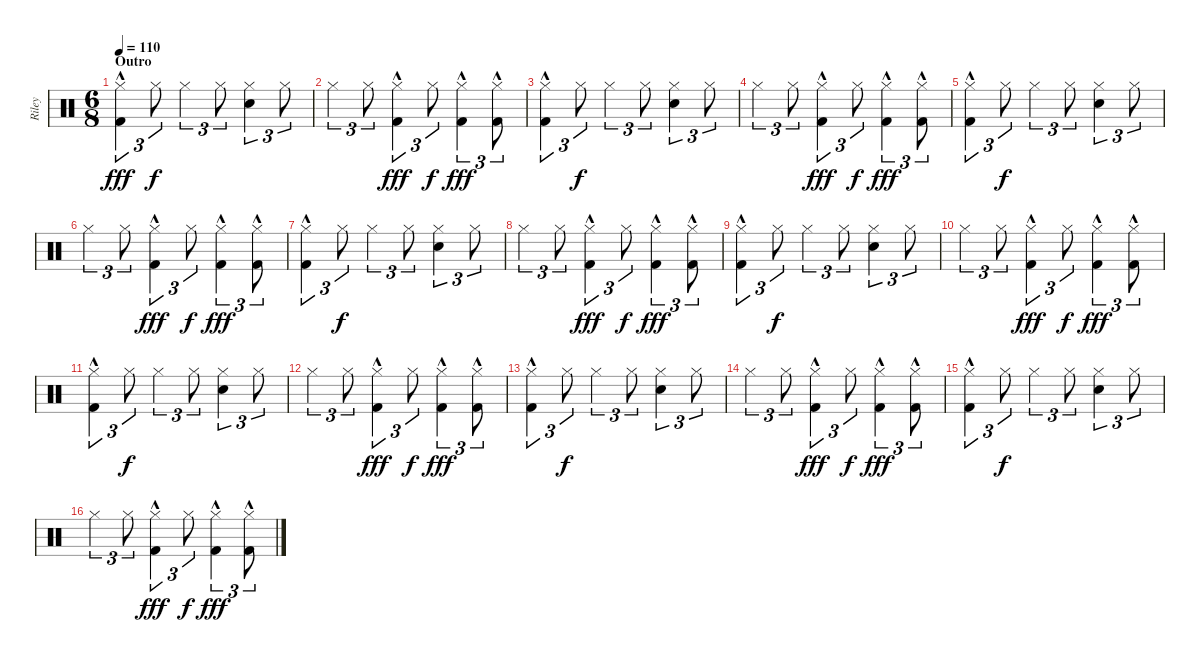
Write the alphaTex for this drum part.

\track ("Riley" "Riley") {instrument percussion}
\staff {score}
\articulation defaults
\ts (6 8)
\section ("" "Outro")
\tempo 110
\clef neutral
\ks c
("Hi-Hat (closed)" "Kick (hit) 2"{hac}).4{tu (3 2) dy fff} "Hi-Hat (closed)".8{tu (3 2) dy f} "Hi-Hat (closed)".4{tu (3 2)} "Hi-Hat (closed)".8{tu (3 2)} ("Hi-Hat (closed)" "Electric Snare (hit)").4{tu (3 2)} "Hi-Hat (closed)".8{tu (3 2)} |
"Hi-Hat (closed)".4{tu (3 2)} "Hi-Hat (closed)".8{tu (3 2)} ("Hi-Hat (closed)" "Kick (hit) 2"{hac}).4{tu (3 2) dy fff} "Hi-Hat (closed)".8{tu (3 2) dy f} ("Hi-Hat (closed)" "Kick (hit) 2"{hac}).4{tu (3 2) dy fff} ("Hi-Hat (closed)" "Kick (hit) 2"{hac}).8{tu (3 2)} |
("Hi-Hat (closed)" "Kick (hit) 2"{hac}).4{tu (3 2)} "Hi-Hat (closed)".8{tu (3 2) dy f} "Hi-Hat (closed)".4{tu (3 2)} "Hi-Hat (closed)".8{tu (3 2)} ("Hi-Hat (closed)" "Electric Snare (hit)").4{tu (3 2)} "Hi-Hat (closed)".8{tu (3 2)} |
"Hi-Hat (closed)".4{tu (3 2)} "Hi-Hat (closed)".8{tu (3 2)} ("Hi-Hat (closed)" "Kick (hit) 2"{hac}).4{tu (3 2) dy fff} "Hi-Hat (closed)".8{tu (3 2) dy f} ("Hi-Hat (closed)" "Kick (hit) 2"{hac}).4{tu (3 2) dy fff} ("Hi-Hat (closed)" "Kick (hit) 2"{hac}).8{tu (3 2)} |
("Hi-Hat (closed)" "Kick (hit) 2"{hac}).4{tu (3 2)} "Hi-Hat (closed)".8{tu (3 2) dy f} "Hi-Hat (closed)".4{tu (3 2)} "Hi-Hat (closed)".8{tu (3 2)} ("Hi-Hat (closed)" "Electric Snare (hit)").4{tu (3 2)} "Hi-Hat (closed)".8{tu (3 2)} |
"Hi-Hat (closed)".4{tu (3 2)} "Hi-Hat (closed)".8{tu (3 2)} ("Hi-Hat (closed)" "Kick (hit) 2"{hac}).4{tu (3 2) dy fff} "Hi-Hat (closed)".8{tu (3 2) dy f} ("Hi-Hat (closed)" "Kick (hit) 2"{hac}).4{tu (3 2) dy fff} ("Hi-Hat (closed)" "Kick (hit) 2"{hac}).8{tu (3 2)} |
("Hi-Hat (closed)" "Kick (hit) 2"{hac}).4{tu (3 2)} "Hi-Hat (closed)".8{tu (3 2) dy f} "Hi-Hat (closed)".4{tu (3 2)} "Hi-Hat (closed)".8{tu (3 2)} ("Hi-Hat (closed)" "Electric Snare (hit)").4{tu (3 2)} "Hi-Hat (closed)".8{tu (3 2)} |
"Hi-Hat (closed)".4{tu (3 2)} "Hi-Hat (closed)".8{tu (3 2)} ("Hi-Hat (closed)" "Kick (hit) 2"{hac}).4{tu (3 2) dy fff} "Hi-Hat (closed)".8{tu (3 2) dy f} ("Hi-Hat (closed)" "Kick (hit) 2"{hac}).4{tu (3 2) dy fff} ("Hi-Hat (closed)" "Kick (hit) 2"{hac}).8{tu (3 2)} |
("Hi-Hat (closed)" "Kick (hit) 2"{hac}).4{tu (3 2)} "Hi-Hat (closed)".8{tu (3 2) dy f} "Hi-Hat (closed)".4{tu (3 2)} "Hi-Hat (closed)".8{tu (3 2)} ("Hi-Hat (closed)" "Electric Snare (hit)").4{tu (3 2)} "Hi-Hat (closed)".8{tu (3 2)} |
"Hi-Hat (closed)".4{tu (3 2)} "Hi-Hat (closed)".8{tu (3 2)} ("Hi-Hat (closed)" "Kick (hit) 2"{hac}).4{tu (3 2) dy fff} "Hi-Hat (closed)".8{tu (3 2) dy f} ("Hi-Hat (closed)" "Kick (hit) 2"{hac}).4{tu (3 2) dy fff} ("Hi-Hat (closed)" "Kick (hit) 2"{hac}).8{tu (3 2)} |
("Hi-Hat (closed)" "Kick (hit) 2"{hac}).4{tu (3 2)} "Hi-Hat (closed)".8{tu (3 2) dy f} "Hi-Hat (closed)".4{tu (3 2)} "Hi-Hat (closed)".8{tu (3 2)} ("Hi-Hat (closed)" "Electric Snare (hit)").4{tu (3 2)} "Hi-Hat (closed)".8{tu (3 2)} |
"Hi-Hat (closed)".4{tu (3 2)} "Hi-Hat (closed)".8{tu (3 2)} ("Hi-Hat (closed)" "Kick (hit) 2"{hac}).4{tu (3 2) dy fff} "Hi-Hat (closed)".8{tu (3 2) dy f} ("Hi-Hat (closed)" "Kick (hit) 2"{hac}).4{tu (3 2) dy fff} ("Hi-Hat (closed)" "Kick (hit) 2"{hac}).8{tu (3 2)} |
("Hi-Hat (closed)" "Kick (hit) 2"{hac}).4{tu (3 2)} "Hi-Hat (closed)".8{tu (3 2) dy f} "Hi-Hat (closed)".4{tu (3 2)} "Hi-Hat (closed)".8{tu (3 2)} ("Hi-Hat (closed)" "Electric Snare (hit)").4{tu (3 2)} "Hi-Hat (closed)".8{tu (3 2)} |
"Hi-Hat (closed)".4{tu (3 2)} "Hi-Hat (closed)".8{tu (3 2)} ("Hi-Hat (closed)" "Kick (hit) 2"{hac}).4{tu (3 2) dy fff} "Hi-Hat (closed)".8{tu (3 2) dy f} ("Hi-Hat (closed)" "Kick (hit) 2"{hac}).4{tu (3 2) dy fff} ("Hi-Hat (closed)" "Kick (hit) 2"{hac}).8{tu (3 2)} |
("Hi-Hat (closed)" "Kick (hit) 2"{hac}).4{tu (3 2)} "Hi-Hat (closed)".8{tu (3 2) dy f} "Hi-Hat (closed)".4{tu (3 2)} "Hi-Hat (closed)".8{tu (3 2)} ("Hi-Hat (closed)" "Electric Snare (hit)").4{tu (3 2)} "Hi-Hat (closed)".8{tu (3 2)} |
"Hi-Hat (closed)".4{tu (3 2)} "Hi-Hat (closed)".8{tu (3 2)} ("Hi-Hat (closed)" "Kick (hit) 2"{hac}).4{tu (3 2) dy fff} "Hi-Hat (closed)".8{tu (3 2) dy f} ("Hi-Hat (closed)" "Kick (hit) 2"{hac}).4{tu (3 2) dy fff} ("Hi-Hat (closed)" "Kick (hit) 2"{hac}).8{tu (3 2)}
